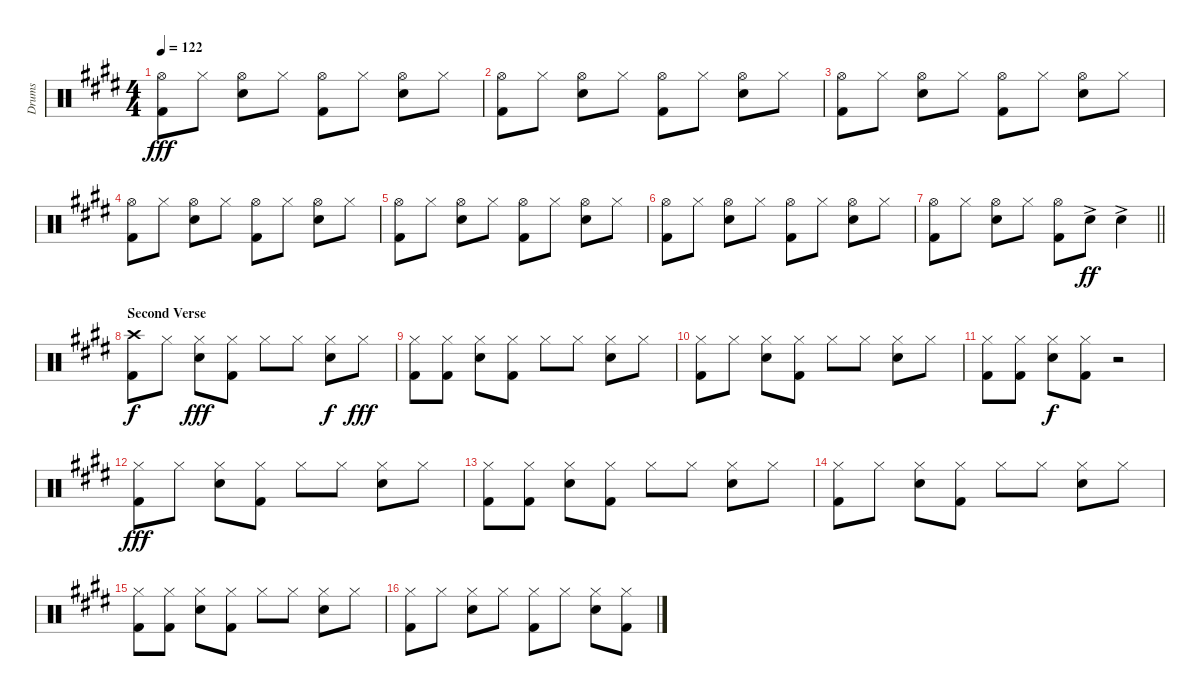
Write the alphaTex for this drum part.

\track ("Drums" "Drums") {instrument percussion}
\staff {score}
\articulation defaults
\ts (4 4)
\tempo 122
\clef neutral
\ks e
("Hi-Hat (open)" "Kick (hit) 2").8{dy fff} "Hi-Hat (closed)".8 ("Hi-Hat (open)" "Electric Snare (hit)").8 "Hi-Hat (closed)".8 ("Hi-Hat (open)" "Kick (hit) 2").8 "Hi-Hat (closed)".8 ("Hi-Hat (open)" "Electric Snare (hit)").8 "Hi-Hat (closed)".8 |
("Hi-Hat (open)" "Kick (hit) 2").8 "Hi-Hat (closed)".8 ("Hi-Hat (open)" "Electric Snare (hit)").8 "Hi-Hat (closed)".8 ("Hi-Hat (open)" "Kick (hit) 2").8 "Hi-Hat (closed)".8 ("Hi-Hat (open)" "Electric Snare (hit)").8 "Hi-Hat (closed)".8 |
("Hi-Hat (open)" "Kick (hit) 2").8 "Hi-Hat (closed)".8 ("Hi-Hat (open)" "Electric Snare (hit)").8 "Hi-Hat (closed)".8 ("Hi-Hat (open)" "Kick (hit) 2").8 "Hi-Hat (closed)".8 ("Hi-Hat (open)" "Electric Snare (hit)").8 "Hi-Hat (closed)".8 |
("Hi-Hat (open)" "Kick (hit) 2").8 "Hi-Hat (closed)".8 ("Hi-Hat (open)" "Electric Snare (hit)").8 "Hi-Hat (closed)".8 ("Hi-Hat (open)" "Kick (hit) 2").8 "Hi-Hat (closed)".8 ("Hi-Hat (open)" "Electric Snare (hit)").8 "Hi-Hat (closed)".8 |
("Hi-Hat (open)" "Kick (hit) 2").8 "Hi-Hat (closed)".8 ("Hi-Hat (open)" "Electric Snare (hit)").8 "Hi-Hat (closed)".8 ("Hi-Hat (open)" "Kick (hit) 2").8 "Hi-Hat (closed)".8 ("Hi-Hat (open)" "Electric Snare (hit)").8 "Hi-Hat (closed)".8 |
("Hi-Hat (open)" "Kick (hit) 2").8 "Hi-Hat (closed)".8 ("Hi-Hat (open)" "Electric Snare (hit)").8 "Hi-Hat (closed)".8 ("Hi-Hat (open)" "Kick (hit) 2").8 "Hi-Hat (closed)".8 ("Hi-Hat (open)" "Electric Snare (hit)").8 "Hi-Hat (closed)".8 |
\barLineRight lightlight
("Hi-Hat (open)" "Kick (hit) 2").8 "Hi-Hat (closed)".8 ("Hi-Hat (open)" "Electric Snare (hit)").8 "Hi-Hat (closed)".8 ("Hi-Hat (open)" "Kick (hit) 2").8 "Electric Snare (hit)"{ac}.8{dy ff} "Electric Snare (hit)"{ac}.4 |
\section ("" "Second Verse")
("Crash high (hit)" "Kick (hit) 2").8{dy f} "Hi-Hat (closed)".8 ("Hi-Hat (closed)" "Electric Snare (hit)").8{dy fff} ("Hi-Hat (closed)" "Kick (hit) 2").8 "Hi-Hat (closed)".8 "Hi-Hat (closed)".8 ("Hi-Hat (closed)" "Electric Snare (hit)").8{dy f} "Hi-Hat (closed)".8{dy fff} |
("Hi-Hat (closed)" "Kick (hit) 2").8 ("Hi-Hat (closed)" "Kick (hit) 2").8 ("Hi-Hat (closed)" "Electric Snare (hit)").8 ("Hi-Hat (closed)" "Kick (hit) 2").8 "Hi-Hat (closed)".8 "Hi-Hat (closed)".8 ("Hi-Hat (closed)" "Electric Snare (hit)").8 "Hi-Hat (closed)".8 |
("Hi-Hat (closed)" "Kick (hit) 2").8 "Hi-Hat (closed)".8 ("Hi-Hat (closed)" "Electric Snare (hit)").8 ("Hi-Hat (closed)" "Kick (hit) 2").8 "Hi-Hat (closed)".8 "Hi-Hat (closed)".8 ("Hi-Hat (closed)" "Electric Snare (hit)").8 "Hi-Hat (closed)".8 |
("Hi-Hat (closed)" "Kick (hit) 2").8 ("Hi-Hat (closed)" "Kick (hit) 2").8 ("Hi-Hat (closed)" "Electric Snare (hit)").8{dy f} ("Hi-Hat (closed)" "Kick (hit) 2").8 r.2 |
("Hi-Hat (closed)" "Kick (hit) 2").8{dy fff} "Hi-Hat (closed)".8 ("Hi-Hat (closed)" "Electric Snare (hit)").8 ("Hi-Hat (closed)" "Kick (hit) 2").8 "Hi-Hat (closed)".8 "Hi-Hat (closed)".8 ("Hi-Hat (closed)" "Electric Snare (hit)").8 "Hi-Hat (closed)".8 |
("Hi-Hat (closed)" "Kick (hit) 2").8 ("Hi-Hat (closed)" "Kick (hit) 2").8 ("Hi-Hat (closed)" "Electric Snare (hit)").8 ("Hi-Hat (closed)" "Kick (hit) 2").8 "Hi-Hat (closed)".8 "Hi-Hat (closed)".8 ("Hi-Hat (closed)" "Electric Snare (hit)").8 "Hi-Hat (closed)".8 |
("Hi-Hat (closed)" "Kick (hit) 2").8 "Hi-Hat (closed)".8 ("Hi-Hat (closed)" "Electric Snare (hit)").8 ("Hi-Hat (closed)" "Kick (hit) 2").8 "Hi-Hat (closed)".8 "Hi-Hat (closed)".8 ("Hi-Hat (closed)" "Electric Snare (hit)").8 "Hi-Hat (closed)".8 |
("Hi-Hat (closed)" "Kick (hit) 2").8 ("Hi-Hat (closed)" "Kick (hit) 2").8 ("Hi-Hat (closed)" "Electric Snare (hit)").8 ("Hi-Hat (closed)" "Kick (hit) 2").8 "Hi-Hat (closed)".8 "Hi-Hat (closed)".8 ("Hi-Hat (closed)" "Electric Snare (hit)").8 "Hi-Hat (closed)".8 |
("Hi-Hat (closed)" "Kick (hit) 2").8 "Hi-Hat (closed)".8 ("Hi-Hat (closed)" "Electric Snare (hit)").8 "Hi-Hat (closed)".8 ("Hi-Hat (closed)" "Kick (hit) 2").8 "Hi-Hat (closed)".8 ("Hi-Hat (closed)" "Electric Snare (hit)").8 ("Hi-Hat (closed)" "Kick (hit) 2").8
